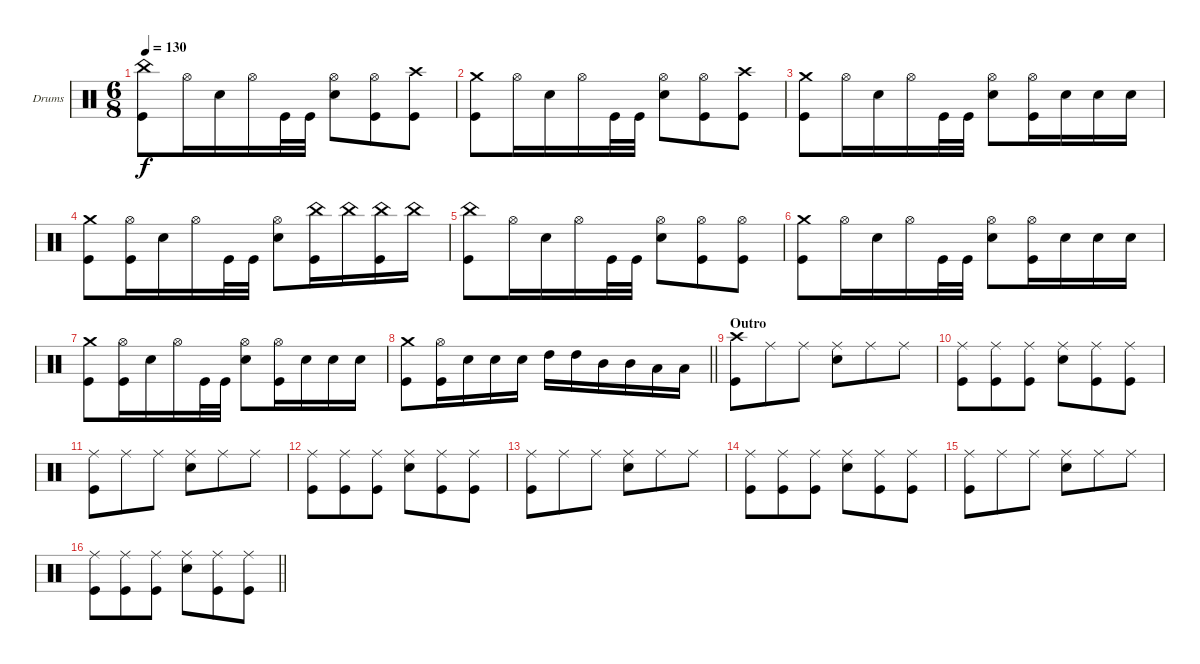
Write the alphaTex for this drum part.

\bracketExtendMode groupsimilarinstruments
\firstSystemTrackNameOrientation horizontal
\otherSystemsTrackNameOrientation horizontal
\track ("drums (Anton Zulganov)" "Drums") {instrument percussion}
\staff {score}
\articulation defaults
\ts (6 8)
\tempo 130
\clef neutral
\ks aminor
("Kick (hit)" "China (hit)").8{dy f} "Hi-Hat (open)".16 "Snare (hit) 2".16 "Hi-Hat (open)".16 "Kick (hit)".32 "Kick (hit)".32 ("Hi-Hat (open)" "Snare (hit) 2").8 ("Hi-Hat (open)" "Kick (hit)").8 ("Kick (hit)" "Crash high (hit)").8 |
("Crash medium (hit)" "Kick (hit)").8 "Hi-Hat (open)".16 "Snare (hit) 2".16 "Hi-Hat (open)".16 "Kick (hit)".32 "Kick (hit)".32 ("Hi-Hat (open)" "Snare (hit) 2").8 ("Hi-Hat (open)" "Kick (hit)").8 ("Kick (hit)" "Crash high (hit)").8 |
("Crash medium (hit)" "Kick (hit)").8 "Hi-Hat (open)".16 "Snare (hit) 2".16 "Hi-Hat (open)".16 "Kick (hit)".32 "Kick (hit)".32 ("Hi-Hat (open)" "Snare (hit) 2").8 ("Hi-Hat (open)" "Kick (hit)").16 "Snare (hit) 2".16 "Snare (hit) 2".16 "Snare (hit) 2".16 |
("Crash medium (hit)" "Kick (hit)").8 ("Hi-Hat (open)" "Kick (hit)").16 "Snare (hit) 2".16 "Hi-Hat (open)".16 "Kick (hit)".32 "Kick (hit)".32 ("Hi-Hat (open)" "Snare (hit) 2").8 ("Kick (hit)" "China (hit)").16 "China (hit)".16 ("China (hit)" "Kick (hit)").16 "China (hit)".16 |
("Kick (hit)" "China (hit)").8 "Hi-Hat (open)".16 "Snare (hit) 2".16 "Hi-Hat (open)".16 "Kick (hit)".32 "Kick (hit)".32 ("Hi-Hat (open)" "Snare (hit) 2").8 ("Hi-Hat (open)" "Kick (hit)").8 ("Kick (hit)" "Hi-Hat (open)").8 |
("Crash medium (hit)" "Kick (hit)").8 "Hi-Hat (open)".16 "Snare (hit) 2".16 "Hi-Hat (open)".16 "Kick (hit)".32 "Kick (hit)".32 ("Hi-Hat (open)" "Snare (hit) 2").8 ("Hi-Hat (open)" "Kick (hit)").16 "Snare (hit) 2".16 "Snare (hit) 2".16 "Snare (hit) 2".16 |
("Crash medium (hit)" "Kick (hit)").8 ("Hi-Hat (open)" "Kick (hit)").16 "Snare (hit) 2".16 "Hi-Hat (open)".16 "Kick (hit)".32 "Kick (hit)".32 ("Hi-Hat (open)" "Snare (hit) 2").8 ("Hi-Hat (open)" "Kick (hit)").16 "Snare (hit) 2".16 "Snare (hit) 2".16 "Snare (hit) 2".16 |
\barLineRight lightlight
("Crash medium (hit)" "Kick (hit)").8 ("Hi-Hat (open)" "Kick (hit)").16 "Snare (hit) 2".16 "Snare (hit) 2".16 "Snare (hit) 2".16 "High Tom (hit)".16 "High Tom (hit)".16 "Mid Tom (hit)".16 "Mid Tom (hit)".16 "Low Tom (hit)".16 "Low Tom (hit)".16 |
\section ("" "Outro")
("Kick (hit)" "Crash high (hit)").8 "Ride (middle)".8 "Ride (middle)".8 ("Snare (hit) 2" "Ride (middle)").8 "Ride (middle)".8 "Ride (middle)".8 |
("Kick (hit)" "Ride (middle)").8 ("Kick (hit)" "Ride (middle)").8 ("Kick (hit)" "Ride (middle)").8 ("Snare (hit) 2" "Ride (middle)").8 ("Kick (hit)" "Ride (middle)").8 ("Kick (hit)" "Ride (middle)").8 |
("Kick (hit)" "Ride (middle)").8 "Ride (middle)".8 "Ride (middle)".8 ("Snare (hit) 2" "Ride (middle)").8 "Ride (middle)".8 "Ride (middle)".8 |
("Kick (hit)" "Ride (middle)").8 ("Kick (hit)" "Ride (middle)").8 ("Kick (hit)" "Ride (middle)").8 ("Snare (hit) 2" "Ride (middle)").8 ("Kick (hit)" "Ride (middle)").8 ("Kick (hit)" "Ride (middle)").8 |
("Kick (hit)" "Ride (middle)").8 "Ride (middle)".8 "Ride (middle)".8 ("Snare (hit) 2" "Ride (middle)").8 "Ride (middle)".8 "Ride (middle)".8 |
("Kick (hit)" "Ride (middle)").8 ("Kick (hit)" "Ride (middle)").8 ("Kick (hit)" "Ride (middle)").8 ("Snare (hit) 2" "Ride (middle)").8 ("Kick (hit)" "Ride (middle)").8 ("Kick (hit)" "Ride (middle)").8 |
("Kick (hit)" "Ride (middle)").8 "Ride (middle)".8 "Ride (middle)".8 ("Snare (hit) 2" "Ride (middle)").8 "Ride (middle)".8 "Ride (middle)".8 |
\barLineRight lightlight
("Kick (hit)" "Ride (middle)").8 ("Kick (hit)" "Ride (middle)").8 ("Kick (hit)" "Ride (middle)").8 ("Snare (hit) 2" "Ride (middle)").8 ("Kick (hit)" "Ride (middle)").8 ("Kick (hit)" "Ride (middle)").8
